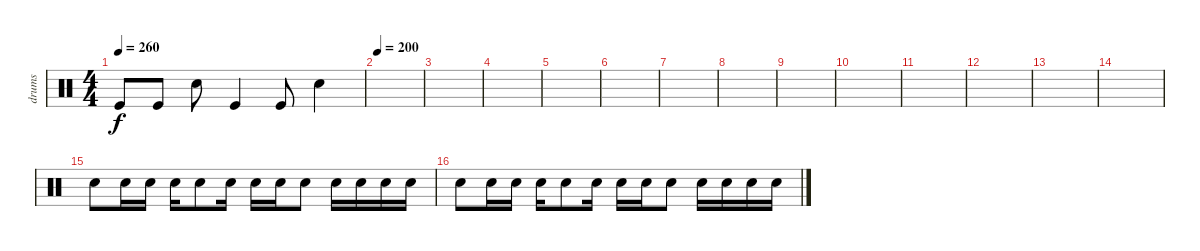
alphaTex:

\track ("drums" "drums") {instrument percussion}
\staff {score}
\articulation defaults
\ts (4 4)
\tempo 260
\clef neutral
\ks c "Kick (hit)".8{dy f} "Kick (hit)".8 "Snare (hit) 2".8 "Kick (hit)".4 "Kick (hit)".8 "Snare (hit) 2".4
|
\tempo 200
|
|
|
|
|
|
|
|
|
|
|
|
|
"Electric Snare (hit)".8 "Electric Snare (hit)".16 "Electric Snare (hit)".16 "Electric Snare (hit)".16 "Electric Snare (hit)".8 "Electric Snare (hit)".16 "Electric Snare (hit)".16 "Electric Snare (hit)".16 "Electric Snare (hit)".8 "Electric Snare (hit)".16 "Electric Snare (hit)".16 "Electric Snare (hit)".16 "Electric Snare (hit)".16 |
"Electric Snare (hit)".8 "Electric Snare (hit)".16 "Electric Snare (hit)".16 "Electric Snare (hit)".16 "Electric Snare (hit)".8 "Electric Snare (hit)".16 "Electric Snare (hit)".16 "Electric Snare (hit)".16 "Electric Snare (hit)".8 "Electric Snare (hit)".16 "Electric Snare (hit)".16 "Electric Snare (hit)".16 "Electric Snare (hit)".16
